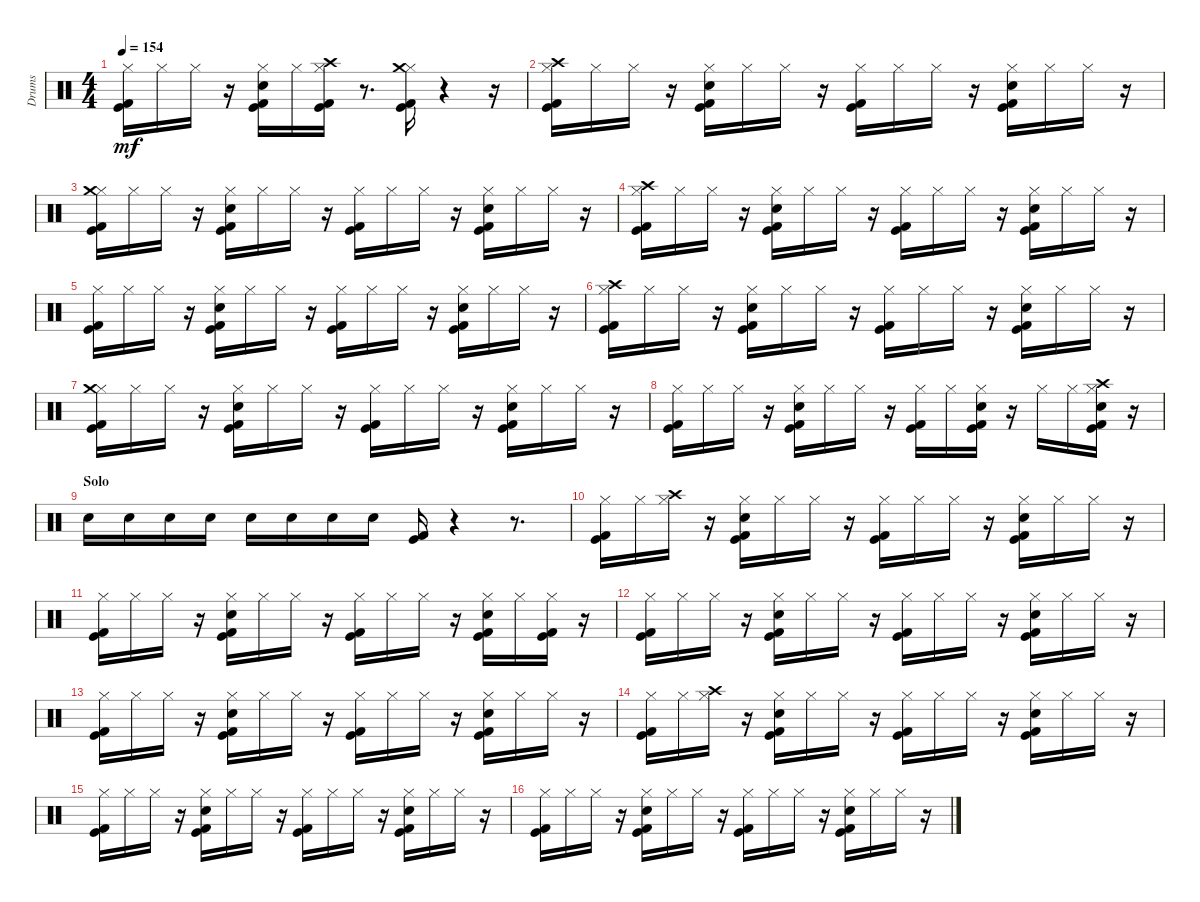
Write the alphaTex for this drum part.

\track ("Drums" "Drums") {instrument percussion}
\staff {score}
\articulation defaults
\ts (4 4)
\tempo 154
\clef neutral
\ks c
("Kick (hit)" "Kick (hit) 2" "Hi-Hat (closed)").16{dy mf} "Hi-Hat (closed)".16 "Hi-Hat (closed)".16 r.16 ("Kick (hit)" "Kick (hit) 2" "Electric Snare (hit)" "Hi-Hat (closed)").16 "Hi-Hat (closed)".16 ("Kick (hit)" "Kick (hit) 2" "Hi-Hat (closed)" "Crash high (hit)").16 r.8{d} ("Kick (hit)" "Kick (hit) 2" "Hi-Hat (closed)" "Crash medium (hit)").16 r.4 r.16 |
("Kick (hit)" "Kick (hit) 2" "Hi-Hat (closed)" "Crash high (hit)").16 "Hi-Hat (closed)".16 "Hi-Hat (closed)".16 r.16 ("Kick (hit)" "Kick (hit) 2" "Electric Snare (hit)" "Hi-Hat (closed)").16 "Hi-Hat (closed)".16 "Hi-Hat (closed)".16 r.16 ("Kick (hit)" "Kick (hit) 2" "Hi-Hat (closed)").16 "Hi-Hat (closed)".16 "Hi-Hat (closed)".16 r.16 ("Kick (hit)" "Kick (hit) 2" "Electric Snare (hit)" "Hi-Hat (closed)").16 "Hi-Hat (closed)".16 "Hi-Hat (closed)".16 r.16 |
("Kick (hit)" "Kick (hit) 2" "Hi-Hat (closed)" "Crash medium (hit)").16 "Hi-Hat (closed)".16 "Hi-Hat (closed)".16 r.16 ("Kick (hit)" "Kick (hit) 2" "Electric Snare (hit)" "Hi-Hat (closed)").16 "Hi-Hat (closed)".16 "Hi-Hat (closed)".16 r.16 ("Kick (hit)" "Kick (hit) 2" "Hi-Hat (closed)").16 "Hi-Hat (closed)".16 "Hi-Hat (closed)".16 r.16 ("Kick (hit)" "Kick (hit) 2" "Electric Snare (hit)" "Hi-Hat (closed)").16 "Hi-Hat (closed)".16 "Hi-Hat (closed)".16 r.16 |
("Kick (hit)" "Kick (hit) 2" "Hi-Hat (closed)" "Crash high (hit)").16 "Hi-Hat (closed)".16 "Hi-Hat (closed)".16 r.16 ("Kick (hit)" "Kick (hit) 2" "Electric Snare (hit)" "Hi-Hat (closed)").16 "Hi-Hat (closed)".16 "Hi-Hat (closed)".16 r.16 ("Kick (hit)" "Kick (hit) 2" "Hi-Hat (closed)").16 "Hi-Hat (closed)".16 "Hi-Hat (closed)".16 r.16 ("Kick (hit)" "Kick (hit) 2" "Electric Snare (hit)" "Hi-Hat (closed)").16 "Hi-Hat (closed)".16 "Hi-Hat (closed)".16 r.16 |
("Kick (hit)" "Kick (hit) 2" "Hi-Hat (closed)").16 "Hi-Hat (closed)".16 "Hi-Hat (closed)".16 r.16 ("Kick (hit)" "Kick (hit) 2" "Electric Snare (hit)" "Hi-Hat (closed)").16 "Hi-Hat (closed)".16 "Hi-Hat (closed)".16 r.16 ("Kick (hit)" "Kick (hit) 2" "Hi-Hat (closed)").16 "Hi-Hat (closed)".16 "Hi-Hat (closed)".16 r.16 ("Kick (hit)" "Kick (hit) 2" "Electric Snare (hit)" "Hi-Hat (closed)").16 "Hi-Hat (closed)".16 "Hi-Hat (closed)".16 r.16 |
("Kick (hit)" "Kick (hit) 2" "Hi-Hat (closed)" "Crash high (hit)").16 "Hi-Hat (closed)".16 "Hi-Hat (closed)".16 r.16 ("Kick (hit)" "Kick (hit) 2" "Electric Snare (hit)" "Hi-Hat (closed)").16 "Hi-Hat (closed)".16 "Hi-Hat (closed)".16 r.16 ("Kick (hit)" "Kick (hit) 2" "Hi-Hat (closed)").16 "Hi-Hat (closed)".16 "Hi-Hat (closed)".16 r.16 ("Kick (hit)" "Kick (hit) 2" "Electric Snare (hit)" "Hi-Hat (closed)").16 "Hi-Hat (closed)".16 "Hi-Hat (closed)".16 r.16 |
("Kick (hit)" "Kick (hit) 2" "Hi-Hat (closed)" "Crash medium (hit)").16 "Hi-Hat (closed)".16 "Hi-Hat (closed)".16 r.16 ("Kick (hit)" "Kick (hit) 2" "Electric Snare (hit)" "Hi-Hat (closed)").16 "Hi-Hat (closed)".16 "Hi-Hat (closed)".16 r.16 ("Kick (hit)" "Kick (hit) 2" "Hi-Hat (closed)").16 "Hi-Hat (closed)".16 "Hi-Hat (closed)".16 r.16 ("Kick (hit)" "Kick (hit) 2" "Electric Snare (hit)" "Hi-Hat (closed)").16 "Hi-Hat (closed)".16 "Hi-Hat (closed)".16 r.16 |
("Kick (hit)" "Kick (hit) 2" "Hi-Hat (closed)").16 "Hi-Hat (closed)".16 "Hi-Hat (closed)".16 r.16 ("Kick (hit)" "Kick (hit) 2" "Electric Snare (hit)" "Hi-Hat (closed)").16 "Hi-Hat (closed)".16 "Hi-Hat (closed)".16 r.16 ("Kick (hit)" "Kick (hit) 2" "Hi-Hat (closed)").16 "Hi-Hat (closed)".16 ("Kick (hit)" "Kick (hit) 2" "Electric Snare (hit)" "Hi-Hat (closed)").16 r.16 "Hi-Hat (closed)".16 "Hi-Hat (closed)".16 ("Kick (hit)" "Kick (hit) 2" "Electric Snare (hit)" "Hi-Hat (closed)" "Crash high (hit)").16 r.16 |
\section ("" "Solo")
"Electric Snare (hit)".16 "Electric Snare (hit)".16 "Electric Snare (hit)".16 "Electric Snare (hit)".16 "Electric Snare (hit)".16 "Electric Snare (hit)".16 "Electric Snare (hit)".16 "Electric Snare (hit)".16 ("Kick (hit)" "Kick (hit) 2").16 r.4 r.8{d} |
("Kick (hit)" "Kick (hit) 2" "Hi-Hat (closed)").16 "Hi-Hat (closed)".16 ("Hi-Hat (closed)" "Crash high (hit)").16 r.16 ("Kick (hit)" "Kick (hit) 2" "Electric Snare (hit)" "Hi-Hat (closed)").16 "Hi-Hat (closed)".16 "Hi-Hat (closed)".16 r.16 ("Kick (hit)" "Kick (hit) 2" "Hi-Hat (closed)").16 "Hi-Hat (closed)".16 "Hi-Hat (closed)".16 r.16 ("Kick (hit)" "Kick (hit) 2" "Electric Snare (hit)" "Hi-Hat (closed)").16 "Hi-Hat (closed)".16 "Hi-Hat (closed)".16 r.16 |
("Kick (hit)" "Kick (hit) 2" "Hi-Hat (closed)").16 "Hi-Hat (closed)".16 "Hi-Hat (closed)".16 r.16 ("Kick (hit)" "Kick (hit) 2" "Electric Snare (hit)" "Hi-Hat (closed)").16 "Hi-Hat (closed)".16 "Hi-Hat (closed)".16 r.16 ("Kick (hit)" "Kick (hit) 2" "Hi-Hat (closed)").16 "Hi-Hat (closed)".16 "Hi-Hat (closed)".16 r.16 ("Kick (hit)" "Kick (hit) 2" "Electric Snare (hit)" "Hi-Hat (closed)").16 "Hi-Hat (closed)".16 ("Kick (hit)" "Kick (hit) 2" "Hi-Hat (closed)").16 r.16 |
("Kick (hit)" "Kick (hit) 2" "Hi-Hat (closed)").16 "Hi-Hat (closed)".16 "Hi-Hat (closed)".16 r.16 ("Kick (hit)" "Kick (hit) 2" "Electric Snare (hit)" "Hi-Hat (closed)").16 "Hi-Hat (closed)".16 "Hi-Hat (closed)".16 r.16 ("Kick (hit)" "Kick (hit) 2" "Hi-Hat (closed)").16 "Hi-Hat (closed)".16 "Hi-Hat (closed)".16 r.16 ("Kick (hit)" "Kick (hit) 2" "Electric Snare (hit)" "Hi-Hat (closed)").16 "Hi-Hat (closed)".16 "Hi-Hat (closed)".16 r.16 |
("Kick (hit)" "Kick (hit) 2" "Hi-Hat (closed)").16 "Hi-Hat (closed)".16 "Hi-Hat (closed)".16 r.16 ("Kick (hit)" "Kick (hit) 2" "Electric Snare (hit)" "Hi-Hat (closed)").16 "Hi-Hat (closed)".16 "Hi-Hat (closed)".16 r.16 ("Kick (hit)" "Kick (hit) 2" "Hi-Hat (closed)").16 "Hi-Hat (closed)".16 "Hi-Hat (closed)".16 r.16 ("Kick (hit)" "Kick (hit) 2" "Electric Snare (hit)" "Hi-Hat (closed)").16 "Hi-Hat (closed)".16 "Hi-Hat (closed)".16 r.16 |
("Kick (hit)" "Kick (hit) 2" "Hi-Hat (closed)").16 "Hi-Hat (closed)".16 ("Hi-Hat (closed)" "Crash high (hit)").16 r.16 ("Kick (hit)" "Kick (hit) 2" "Electric Snare (hit)" "Hi-Hat (closed)").16 "Hi-Hat (closed)".16 "Hi-Hat (closed)".16 r.16 ("Kick (hit)" "Kick (hit) 2" "Hi-Hat (closed)").16 "Hi-Hat (closed)".16 "Hi-Hat (closed)".16 r.16 ("Kick (hit)" "Kick (hit) 2" "Electric Snare (hit)" "Hi-Hat (closed)").16 "Hi-Hat (closed)".16 "Hi-Hat (closed)".16 r.16 |
("Kick (hit)" "Kick (hit) 2" "Hi-Hat (closed)").16 "Hi-Hat (closed)".16 "Hi-Hat (closed)".16 r.16 ("Kick (hit)" "Kick (hit) 2" "Electric Snare (hit)" "Hi-Hat (closed)").16 "Hi-Hat (closed)".16 "Hi-Hat (closed)".16 r.16 ("Kick (hit)" "Kick (hit) 2" "Hi-Hat (closed)").16 "Hi-Hat (closed)".16 "Hi-Hat (closed)".16 r.16 ("Kick (hit)" "Kick (hit) 2" "Electric Snare (hit)" "Hi-Hat (closed)").16 "Hi-Hat (closed)".16 "Hi-Hat (closed)".16 r.16 |
("Kick (hit)" "Kick (hit) 2" "Hi-Hat (closed)").16 "Hi-Hat (closed)".16 "Hi-Hat (closed)".16 r.16 ("Kick (hit)" "Kick (hit) 2" "Electric Snare (hit)" "Hi-Hat (closed)").16 "Hi-Hat (closed)".16 "Hi-Hat (closed)".16 r.16 ("Kick (hit)" "Kick (hit) 2" "Hi-Hat (closed)").16 "Hi-Hat (closed)".16 "Hi-Hat (closed)".16 r.16 ("Kick (hit)" "Kick (hit) 2" "Electric Snare (hit)" "Hi-Hat (closed)").16 "Hi-Hat (closed)".16 "Hi-Hat (closed)".16 r.16
